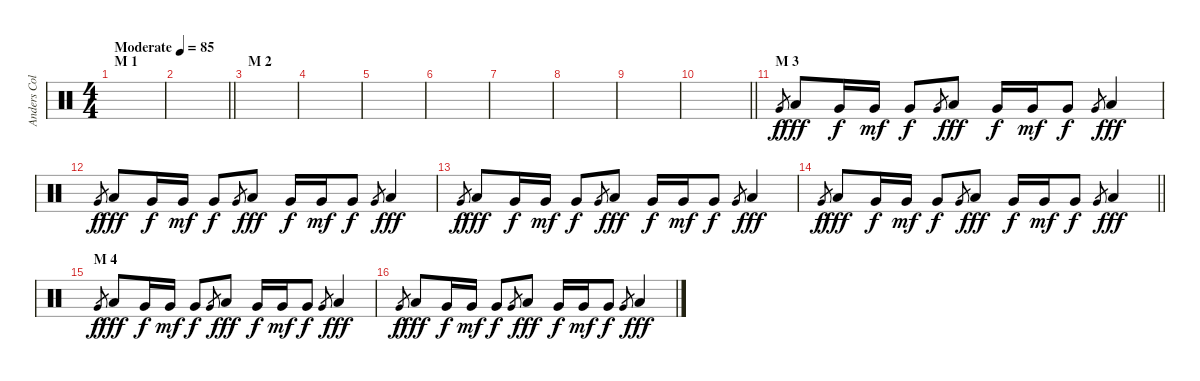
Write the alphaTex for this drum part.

\track ("Anders Colsefni" "Anders Col") {instrument percussion}
\staff {score}
\articulation defaults
\ts (4 4)
\section ("" "M 1")
\tempo (85 "Moderate")
\clef neutral
\ks c
|
\barLineRight lightlight
|
\section ("" "M 2")
|
|
|
|
|
|
|
\barLineRight lightlight
|
\section ("" "M 3")
"Very Low Tom (hit)".8{gr} "Low Tom (hit)".8{dy fff} "Very Low Tom (hit)".16{dy f} "Very Low Tom (hit)".16{dy mf} "Very Low Tom (hit)".8{dy f} "Very Low Tom (hit)".8{gr} "Low Tom (hit)".8{dy fff} "Very Low Tom (hit)".16{dy f} "Very Low Tom (hit)".16{dy mf} "Very Low Tom (hit)".8{dy f} "Very Low Tom (hit)".8{gr} "Low Tom (hit)".4{dy fff} |
"Very Low Tom (hit)".8{gr dy f} "Low Tom (hit)".8{dy fff} "Very Low Tom (hit)".16{dy f} "Very Low Tom (hit)".16{dy mf} "Very Low Tom (hit)".8{dy f} "Very Low Tom (hit)".8{gr} "Low Tom (hit)".8{dy fff} "Very Low Tom (hit)".16{dy f} "Very Low Tom (hit)".16{dy mf} "Very Low Tom (hit)".8{dy f} "Very Low Tom (hit)".8{gr} "Low Tom (hit)".4{dy fff} |
"Very Low Tom (hit)".8{gr dy f} "Low Tom (hit)".8{dy fff} "Very Low Tom (hit)".16{dy f} "Very Low Tom (hit)".16{dy mf} "Very Low Tom (hit)".8{dy f} "Very Low Tom (hit)".8{gr} "Low Tom (hit)".8{dy fff} "Very Low Tom (hit)".16{dy f} "Very Low Tom (hit)".16{dy mf} "Very Low Tom (hit)".8{dy f} "Very Low Tom (hit)".8{gr} "Low Tom (hit)".4{dy fff} |
\barLineRight lightlight "Very Low Tom (hit)".8{gr dy f} "Low Tom (hit)".8{dy fff} "Very Low Tom (hit)".16{dy f} "Very Low Tom (hit)".16{dy mf} "Very Low Tom (hit)".8{dy f} "Very Low Tom (hit)".8{gr} "Low Tom (hit)".8{dy fff} "Very Low Tom (hit)".16{dy f} "Very Low Tom (hit)".16{dy mf} "Very Low Tom (hit)".8{dy f} "Very Low Tom (hit)".8{gr} "Low Tom (hit)".4{dy fff}
|
\section ("" "M 4")
"Very Low Tom (hit)".8{gr dy f} "Low Tom (hit)".8{dy fff} "Very Low Tom (hit)".16{dy f} "Very Low Tom (hit)".16{dy mf} "Very Low Tom (hit)".8{dy f} "Very Low Tom (hit)".8{gr} "Low Tom (hit)".8{dy fff} "Very Low Tom (hit)".16{dy f} "Very Low Tom (hit)".16{dy mf} "Very Low Tom (hit)".8{dy f} "Very Low Tom (hit)".8{gr} "Low Tom (hit)".4{dy fff} |
"Very Low Tom (hit)".8{gr dy f} "Low Tom (hit)".8{dy fff} "Very Low Tom (hit)".16{dy f} "Very Low Tom (hit)".16{dy mf} "Very Low Tom (hit)".8{dy f} "Very Low Tom (hit)".8{gr} "Low Tom (hit)".8{dy fff} "Very Low Tom (hit)".16{dy f} "Very Low Tom (hit)".16{dy mf} "Very Low Tom (hit)".8{dy f} "Very Low Tom (hit)".8{gr} "Low Tom (hit)".4{dy fff}
